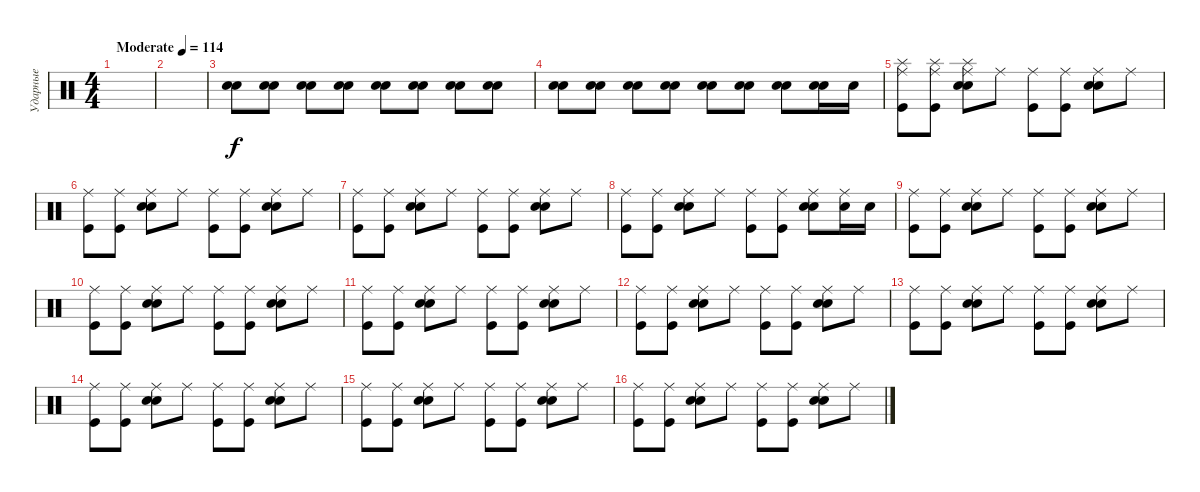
\track ("Ударные" "Ударные") {instrument percussion}
\staff {score}
\articulation defaults
\ts (4 4)
\tempo (114 "Moderate")
\clef neutral
\ks c
|
|
("Electric Snare (hit)" "Snare (hit) 2").8{volume 7} ("Electric Snare (hit)" "Snare (hit) 2").8{volume 11} ("Electric Snare (hit)" "Snare (hit) 2").8 ("Electric Snare (hit)" "Snare (hit) 2").8 ("Electric Snare (hit)" "Snare (hit) 2").8 ("Electric Snare (hit)" "Snare (hit) 2").8 ("Electric Snare (hit)" "Snare (hit) 2").8 ("Electric Snare (hit)" "Snare (hit) 2").8 |
("Electric Snare (hit)" "Snare (hit) 2").8 ("Electric Snare (hit)" "Snare (hit) 2").8 ("Electric Snare (hit)" "Snare (hit) 2").8 ("Electric Snare (hit)" "Snare (hit) 2").8 ("Electric Snare (hit)" "Snare (hit) 2").8 ("Electric Snare (hit)" "Snare (hit) 2").8 ("Electric Snare (hit)" "Snare (hit) 2").8 ("Electric Snare (hit)" "Snare (hit) 2").16 "Electric Snare (hit)".16 |
("Splash (hit)" "Ride (middle)" "Kick (hit)").8 ("Splash (hit)" "Ride (middle)" "Kick (hit)").8 ("Splash (hit)" "Ride (middle)" "Electric Snare (hit)" "Snare (hit) 2").8 "Ride (middle)".8 ("Ride (middle)" "Kick (hit)").8 ("Ride (middle)" "Kick (hit)").8 ("Ride (middle)" "Electric Snare (hit)" "Snare (hit) 2").8 "Ride (middle)".8 |
("Ride (middle)" "Kick (hit)").8 ("Ride (middle)" "Kick (hit)").8 ("Ride (middle)" "Electric Snare (hit)" "Snare (hit) 2").8 "Ride (middle)".8 ("Ride (middle)" "Kick (hit)").8 ("Ride (middle)" "Kick (hit)").8 ("Ride (middle)" "Electric Snare (hit)" "Snare (hit) 2").8 "Ride (middle)".8 |
("Ride (middle)" "Kick (hit)").8 ("Ride (middle)" "Kick (hit)").8 ("Ride (middle)" "Electric Snare (hit)" "Snare (hit) 2").8 "Ride (middle)".8 ("Ride (middle)" "Kick (hit)").8 ("Ride (middle)" "Kick (hit)").8 ("Ride (middle)" "Electric Snare (hit)" "Snare (hit) 2").8 "Ride (middle)".8 |
("Ride (middle)" "Kick (hit)").8 ("Ride (middle)" "Kick (hit)").8 ("Ride (middle)" "Electric Snare (hit)" "Snare (hit) 2").8 "Ride (middle)".8 ("Ride (middle)" "Kick (hit)").8 ("Ride (middle)" "Kick (hit)").8 ("Ride (middle)" "Electric Snare (hit)" "Snare (hit) 2").8 ("Ride (middle)" "Electric Snare (hit)").16 "Electric Snare (hit)".16 |
("Ride (middle)" "Kick (hit)").8 ("Ride (middle)" "Kick (hit)").8 ("Ride (middle)" "Electric Snare (hit)" "Snare (hit) 2").8 "Ride (middle)".8 ("Ride (middle)" "Kick (hit)").8 ("Ride (middle)" "Kick (hit)").8 ("Ride (middle)" "Electric Snare (hit)" "Snare (hit) 2").8 "Ride (middle)".8 |
("Ride (middle)" "Kick (hit)").8 ("Ride (middle)" "Kick (hit)").8 ("Ride (middle)" "Electric Snare (hit)" "Snare (hit) 2").8 "Ride (middle)".8 ("Ride (middle)" "Kick (hit)").8 ("Ride (middle)" "Kick (hit)").8 ("Ride (middle)" "Electric Snare (hit)" "Snare (hit) 2").8 "Ride (middle)".8 |
("Ride (middle)" "Kick (hit)").8 ("Ride (middle)" "Kick (hit)").8 ("Ride (middle)" "Electric Snare (hit)" "Snare (hit) 2").8 "Ride (middle)".8 ("Ride (middle)" "Kick (hit)").8 ("Ride (middle)" "Kick (hit)").8 ("Ride (middle)" "Electric Snare (hit)" "Snare (hit) 2").8 "Ride (middle)".8 |
("Ride (middle)" "Kick (hit)").8 ("Ride (middle)" "Kick (hit)").8 ("Ride (middle)" "Electric Snare (hit)" "Snare (hit) 2").8 "Ride (middle)".8 ("Ride (middle)" "Kick (hit)").8 ("Ride (middle)" "Kick (hit)").8 ("Ride (middle)" "Electric Snare (hit)" "Snare (hit) 2").8 "Ride (middle)".8 |
("Ride (middle)" "Kick (hit)").8 ("Ride (middle)" "Kick (hit)").8 ("Ride (middle)" "Electric Snare (hit)" "Snare (hit) 2").8 "Ride (middle)".8 ("Ride (middle)" "Kick (hit)").8 ("Ride (middle)" "Kick (hit)").8 ("Ride (middle)" "Electric Snare (hit)" "Snare (hit) 2").8 "Ride (middle)".8 |
("Ride (middle)" "Kick (hit)").8 ("Ride (middle)" "Kick (hit)").8 ("Ride (middle)" "Electric Snare (hit)" "Snare (hit) 2").8 "Ride (middle)".8 ("Ride (middle)" "Kick (hit)").8 ("Ride (middle)" "Kick (hit)").8 ("Ride (middle)" "Electric Snare (hit)" "Snare (hit) 2").8 "Ride (middle)".8 |
("Ride (middle)" "Kick (hit)").8 ("Ride (middle)" "Kick (hit)").8 ("Ride (middle)" "Electric Snare (hit)" "Snare (hit) 2").8 "Ride (middle)".8 ("Ride (middle)" "Kick (hit)").8 ("Ride (middle)" "Kick (hit)").8 ("Ride (middle)" "Electric Snare (hit)" "Snare (hit) 2").8 "Ride (middle)".8 |
("Ride (middle)" "Kick (hit)").8 ("Ride (middle)" "Kick (hit)").8 ("Ride (middle)" "Electric Snare (hit)" "Snare (hit) 2").8 "Ride (middle)".8 ("Ride (middle)" "Kick (hit)").8 ("Ride (middle)" "Kick (hit)").8 ("Ride (middle)" "Electric Snare (hit)" "Snare (hit) 2").8 "Ride (middle)".8
